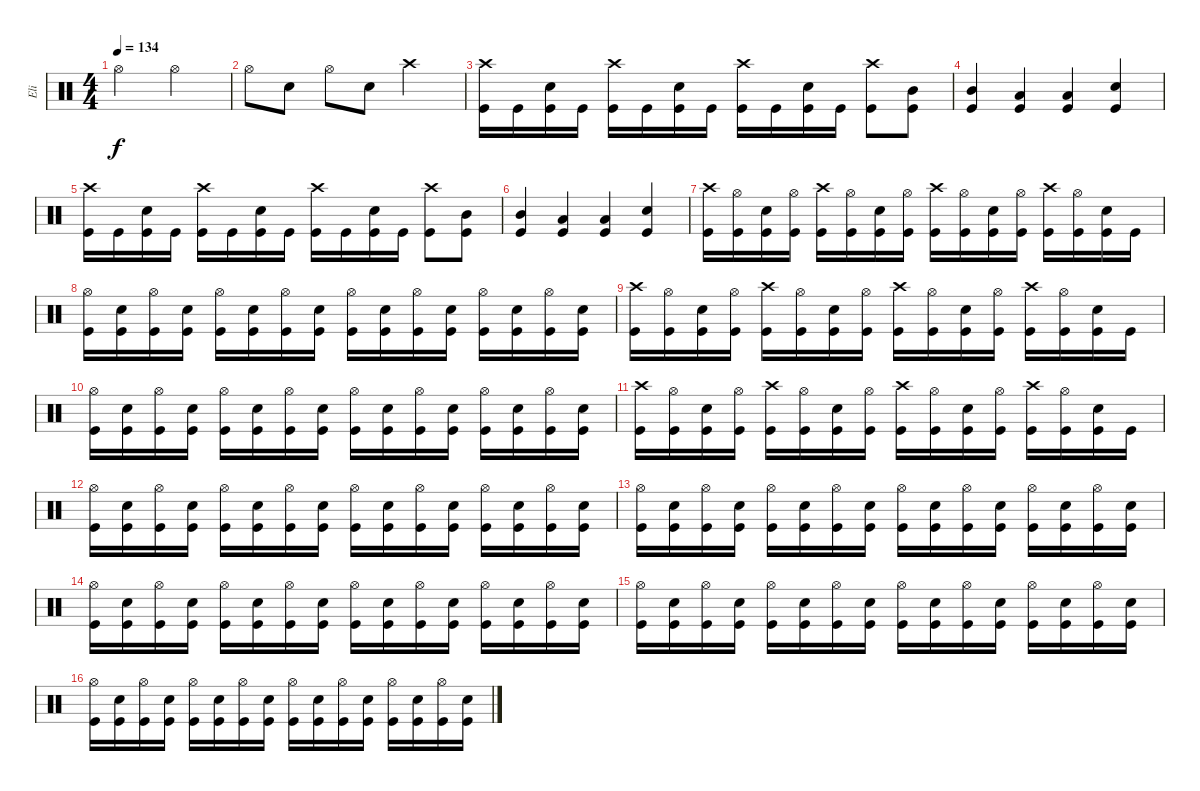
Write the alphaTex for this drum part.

\track ("Eli" "Eli") {instrument percussion}
\staff {score}
\articulation defaults
\ts (4 4)
\tempo 134
\clef neutral
\ks c "Hi-Hat (open)".2{dy f} "Hi-Hat (open)".2
|
"Hi-Hat (open)".8 "Electric Snare (hit)".8 "Hi-Hat (open)".8 "Electric Snare (hit)".8 "Crash high (hit)".2 |
("Crash high (hit)" "Kick (hit)").16 "Kick (hit)".16 ("Electric Snare (hit)" "Kick (hit)").16 "Kick (hit)".16 ("Crash high (hit)" "Kick (hit)").16 "Kick (hit)".16 ("Electric Snare (hit)" "Kick (hit)").16 "Kick (hit)".16 ("Crash high (hit)" "Kick (hit)").16 "Kick (hit)".16 ("Electric Snare (hit)" "Kick (hit)").16 "Kick (hit)".16 ("Crash high (hit)" "Kick (hit)").8 ("Mid Tom (hit)" "Kick (hit)").8 |
("Mid Tom (hit)" "Kick (hit)").4 ("Low Tom (hit)" "Kick (hit)").4 ("Low Tom (hit)" "Kick (hit)").4 ("Electric Snare (hit)" "Kick (hit)").4 |
("Crash high (hit)" "Kick (hit)").16 "Kick (hit)".16 ("Electric Snare (hit)" "Kick (hit)").16 "Kick (hit)".16 ("Crash high (hit)" "Kick (hit)").16 "Kick (hit)".16 ("Electric Snare (hit)" "Kick (hit)").16 "Kick (hit)".16 ("Crash high (hit)" "Kick (hit)").16 "Kick (hit)".16 ("Electric Snare (hit)" "Kick (hit)").16 "Kick (hit)".16 ("Crash high (hit)" "Kick (hit)").8 ("Mid Tom (hit)" "Kick (hit)").8 |
("Mid Tom (hit)" "Kick (hit)").4 ("Low Tom (hit)" "Kick (hit)").4 ("Low Tom (hit)" "Kick (hit)").4 ("Electric Snare (hit)" "Kick (hit)").4 |
("Crash high (hit)" "Kick (hit)").16 ("Hi-Hat (open)" "Kick (hit)").16 ("Electric Snare (hit)" "Kick (hit)").16 ("Hi-Hat (open)" "Kick (hit)").16 ("Crash high (hit)" "Kick (hit)").16 ("Hi-Hat (open)" "Kick (hit)").16 ("Electric Snare (hit)" "Kick (hit)").16 ("Hi-Hat (open)" "Kick (hit)").16 ("Crash high (hit)" "Kick (hit)").16 ("Hi-Hat (open)" "Kick (hit)").16 ("Electric Snare (hit)" "Kick (hit)").16 ("Hi-Hat (open)" "Kick (hit)").16 ("Crash high (hit)" "Kick (hit)").16 ("Hi-Hat (open)" "Kick (hit)").16 ("Electric Snare (hit)" "Kick (hit)").16 "Kick (hit)".16 |
("Hi-Hat (open)" "Kick (hit)").16 ("Electric Snare (hit)" "Kick (hit)").16 ("Hi-Hat (open)" "Kick (hit)").16 ("Electric Snare (hit)" "Kick (hit)").16 ("Hi-Hat (open)" "Kick (hit)").16 ("Electric Snare (hit)" "Kick (hit)").16 ("Hi-Hat (open)" "Kick (hit)").16 ("Electric Snare (hit)" "Kick (hit)").16 ("Hi-Hat (open)" "Kick (hit)").16 ("Electric Snare (hit)" "Kick (hit)").16 ("Hi-Hat (open)" "Kick (hit)").16 ("Electric Snare (hit)" "Kick (hit)").16 ("Hi-Hat (open)" "Kick (hit)").16 ("Electric Snare (hit)" "Kick (hit)").16 ("Hi-Hat (open)" "Kick (hit)").16 ("Electric Snare (hit)" "Kick (hit)").16 |
("Crash high (hit)" "Kick (hit)").16 ("Hi-Hat (open)" "Kick (hit)").16 ("Electric Snare (hit)" "Kick (hit)").16 ("Hi-Hat (open)" "Kick (hit)").16 ("Crash high (hit)" "Kick (hit)").16 ("Hi-Hat (open)" "Kick (hit)").16 ("Electric Snare (hit)" "Kick (hit)").16 ("Hi-Hat (open)" "Kick (hit)").16 ("Crash high (hit)" "Kick (hit)").16 ("Hi-Hat (open)" "Kick (hit)").16 ("Electric Snare (hit)" "Kick (hit)").16 ("Hi-Hat (open)" "Kick (hit)").16 ("Crash high (hit)" "Kick (hit)").16 ("Hi-Hat (open)" "Kick (hit)").16 ("Electric Snare (hit)" "Kick (hit)").16 "Kick (hit)".16 |
("Hi-Hat (open)" "Kick (hit)").16 ("Electric Snare (hit)" "Kick (hit)").16 ("Hi-Hat (open)" "Kick (hit)").16 ("Electric Snare (hit)" "Kick (hit)").16 ("Hi-Hat (open)" "Kick (hit)").16 ("Electric Snare (hit)" "Kick (hit)").16 ("Hi-Hat (open)" "Kick (hit)").16 ("Electric Snare (hit)" "Kick (hit)").16 ("Hi-Hat (open)" "Kick (hit)").16 ("Electric Snare (hit)" "Kick (hit)").16 ("Hi-Hat (open)" "Kick (hit)").16 ("Electric Snare (hit)" "Kick (hit)").16 ("Hi-Hat (open)" "Kick (hit)").16 ("Electric Snare (hit)" "Kick (hit)").16 ("Hi-Hat (open)" "Kick (hit)").16 ("Electric Snare (hit)" "Kick (hit)").16 |
("Crash high (hit)" "Kick (hit)").16 ("Hi-Hat (open)" "Kick (hit)").16 ("Electric Snare (hit)" "Kick (hit)").16 ("Hi-Hat (open)" "Kick (hit)").16 ("Crash high (hit)" "Kick (hit)").16 ("Hi-Hat (open)" "Kick (hit)").16 ("Electric Snare (hit)" "Kick (hit)").16 ("Hi-Hat (open)" "Kick (hit)").16 ("Crash high (hit)" "Kick (hit)").16 ("Hi-Hat (open)" "Kick (hit)").16 ("Electric Snare (hit)" "Kick (hit)").16 ("Hi-Hat (open)" "Kick (hit)").16 ("Crash high (hit)" "Kick (hit)").16 ("Hi-Hat (open)" "Kick (hit)").16 ("Electric Snare (hit)" "Kick (hit)").16 "Kick (hit)".16 |
("Hi-Hat (open)" "Kick (hit)").16 ("Electric Snare (hit)" "Kick (hit)").16 ("Hi-Hat (open)" "Kick (hit)").16 ("Electric Snare (hit)" "Kick (hit)").16 ("Hi-Hat (open)" "Kick (hit)").16 ("Electric Snare (hit)" "Kick (hit)").16 ("Hi-Hat (open)" "Kick (hit)").16 ("Electric Snare (hit)" "Kick (hit)").16 ("Hi-Hat (open)" "Kick (hit)").16 ("Electric Snare (hit)" "Kick (hit)").16 ("Hi-Hat (open)" "Kick (hit)").16 ("Electric Snare (hit)" "Kick (hit)").16 ("Hi-Hat (open)" "Kick (hit)").16 ("Electric Snare (hit)" "Kick (hit)").16 ("Hi-Hat (open)" "Kick (hit)").16 ("Electric Snare (hit)" "Kick (hit)").16 |
("Hi-Hat (open)" "Kick (hit)").16 ("Electric Snare (hit)" "Kick (hit)").16 ("Hi-Hat (open)" "Kick (hit)").16 ("Electric Snare (hit)" "Kick (hit)").16 ("Hi-Hat (open)" "Kick (hit)").16 ("Electric Snare (hit)" "Kick (hit)").16 ("Hi-Hat (open)" "Kick (hit)").16 ("Electric Snare (hit)" "Kick (hit)").16 ("Hi-Hat (open)" "Kick (hit)").16 ("Electric Snare (hit)" "Kick (hit)").16 ("Hi-Hat (open)" "Kick (hit)").16 ("Electric Snare (hit)" "Kick (hit)").16 ("Hi-Hat (open)" "Kick (hit)").16 ("Electric Snare (hit)" "Kick (hit)").16 ("Hi-Hat (open)" "Kick (hit)").16 ("Electric Snare (hit)" "Kick (hit)").16 |
("Hi-Hat (open)" "Kick (hit)").16 ("Electric Snare (hit)" "Kick (hit)").16 ("Hi-Hat (open)" "Kick (hit)").16 ("Electric Snare (hit)" "Kick (hit)").16 ("Hi-Hat (open)" "Kick (hit)").16 ("Electric Snare (hit)" "Kick (hit)").16 ("Hi-Hat (open)" "Kick (hit)").16 ("Electric Snare (hit)" "Kick (hit)").16 ("Hi-Hat (open)" "Kick (hit)").16 ("Electric Snare (hit)" "Kick (hit)").16 ("Hi-Hat (open)" "Kick (hit)").16 ("Electric Snare (hit)" "Kick (hit)").16 ("Hi-Hat (open)" "Kick (hit)").16 ("Electric Snare (hit)" "Kick (hit)").16 ("Hi-Hat (open)" "Kick (hit)").16 ("Electric Snare (hit)" "Kick (hit)").16 |
("Hi-Hat (open)" "Kick (hit)").16 ("Electric Snare (hit)" "Kick (hit)").16 ("Hi-Hat (open)" "Kick (hit)").16 ("Electric Snare (hit)" "Kick (hit)").16 ("Hi-Hat (open)" "Kick (hit)").16 ("Electric Snare (hit)" "Kick (hit)").16 ("Hi-Hat (open)" "Kick (hit)").16 ("Electric Snare (hit)" "Kick (hit)").16 ("Hi-Hat (open)" "Kick (hit)").16 ("Electric Snare (hit)" "Kick (hit)").16 ("Hi-Hat (open)" "Kick (hit)").16 ("Electric Snare (hit)" "Kick (hit)").16 ("Hi-Hat (open)" "Kick (hit)").16 ("Electric Snare (hit)" "Kick (hit)").16 ("Hi-Hat (open)" "Kick (hit)").16 ("Electric Snare (hit)" "Kick (hit)").16 |
("Hi-Hat (open)" "Kick (hit)").16 ("Electric Snare (hit)" "Kick (hit)").16 ("Hi-Hat (open)" "Kick (hit)").16 ("Electric Snare (hit)" "Kick (hit)").16 ("Hi-Hat (open)" "Kick (hit)").16 ("Electric Snare (hit)" "Kick (hit)").16 ("Hi-Hat (open)" "Kick (hit)").16 ("Electric Snare (hit)" "Kick (hit)").16 ("Hi-Hat (open)" "Kick (hit)").16 ("Electric Snare (hit)" "Kick (hit)").16 ("Hi-Hat (open)" "Kick (hit)").16 ("Electric Snare (hit)" "Kick (hit)").16 ("Hi-Hat (open)" "Kick (hit)").16 ("Electric Snare (hit)" "Kick (hit)").16 ("Hi-Hat (open)" "Kick (hit)").16 ("Electric Snare (hit)" "Kick (hit)").16
